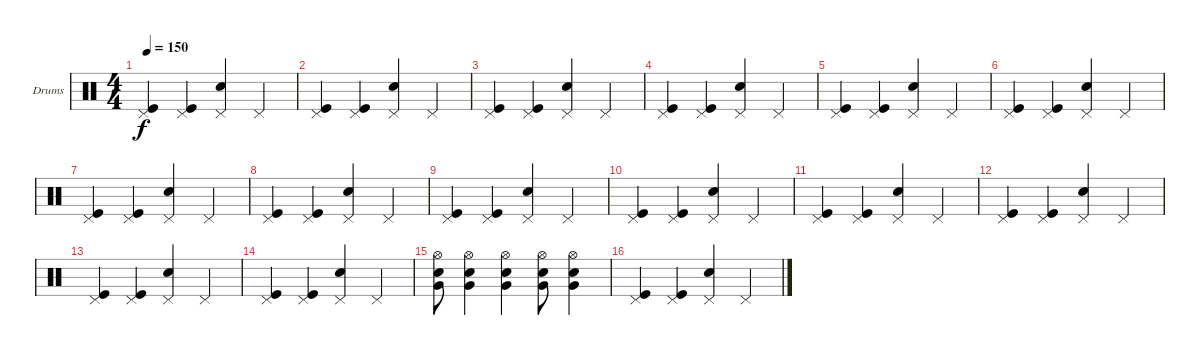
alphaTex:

\bracketExtendMode groupsimilarinstruments
\firstSystemTrackNameOrientation horizontal
\otherSystemsTrackNameOrientation horizontal
\track ("Drumkit" "Drums") {instrument percussion}
\staff {score}
\articulation defaults
\ts (4 4)
\tempo 150
\clef neutral
\ks c
("Pedal Hi-Hat (hit)" "Kick (hit)").4{dy f} ("Pedal Hi-Hat (hit)" "Kick (hit)").4 ("Pedal Hi-Hat (hit)" "Snare (hit) 2").4 "Pedal Hi-Hat (hit)".4 |
("Pedal Hi-Hat (hit)" "Kick (hit)").4 ("Pedal Hi-Hat (hit)" "Kick (hit)").4 ("Pedal Hi-Hat (hit)" "Snare (hit) 2").4 "Pedal Hi-Hat (hit)".4 |
("Pedal Hi-Hat (hit)" "Kick (hit)").4 ("Pedal Hi-Hat (hit)" "Kick (hit)").4 ("Pedal Hi-Hat (hit)" "Snare (hit) 2").4 "Pedal Hi-Hat (hit)".4 |
("Pedal Hi-Hat (hit)" "Kick (hit)").4 ("Pedal Hi-Hat (hit)" "Kick (hit)").4 ("Pedal Hi-Hat (hit)" "Snare (hit) 2").4 "Pedal Hi-Hat (hit)".4 |
("Pedal Hi-Hat (hit)" "Kick (hit)").4 ("Pedal Hi-Hat (hit)" "Kick (hit)").4 ("Pedal Hi-Hat (hit)" "Snare (hit) 2").4 "Pedal Hi-Hat (hit)".4 |
("Pedal Hi-Hat (hit)" "Kick (hit)").4 ("Pedal Hi-Hat (hit)" "Kick (hit)").4 ("Pedal Hi-Hat (hit)" "Snare (hit) 2").4 "Pedal Hi-Hat (hit)".4 |
("Pedal Hi-Hat (hit)" "Kick (hit)").4 ("Pedal Hi-Hat (hit)" "Kick (hit)").4 ("Pedal Hi-Hat (hit)" "Snare (hit) 2").4 "Pedal Hi-Hat (hit)".4 |
("Pedal Hi-Hat (hit)" "Kick (hit)").4 ("Pedal Hi-Hat (hit)" "Kick (hit)").4 ("Pedal Hi-Hat (hit)" "Snare (hit) 2").4 "Pedal Hi-Hat (hit)".4 |
("Pedal Hi-Hat (hit)" "Kick (hit)").4 ("Pedal Hi-Hat (hit)" "Kick (hit)").4 ("Pedal Hi-Hat (hit)" "Snare (hit) 2").4 "Pedal Hi-Hat (hit)".4 |
("Pedal Hi-Hat (hit)" "Kick (hit)").4 ("Pedal Hi-Hat (hit)" "Kick (hit)").4 ("Pedal Hi-Hat (hit)" "Snare (hit) 2").4 "Pedal Hi-Hat (hit)".4 |
("Pedal Hi-Hat (hit)" "Kick (hit)").4 ("Pedal Hi-Hat (hit)" "Kick (hit)").4 ("Pedal Hi-Hat (hit)" "Snare (hit) 2").4 "Pedal Hi-Hat (hit)".4 |
("Pedal Hi-Hat (hit)" "Kick (hit)").4 ("Pedal Hi-Hat (hit)" "Kick (hit)").4 ("Pedal Hi-Hat (hit)" "Snare (hit) 2").4 "Pedal Hi-Hat (hit)".4 |
("Pedal Hi-Hat (hit)" "Kick (hit)").4 ("Pedal Hi-Hat (hit)" "Kick (hit)").4 ("Pedal Hi-Hat (hit)" "Snare (hit) 2").4 "Pedal Hi-Hat (hit)".4 |
("Pedal Hi-Hat (hit)" "Kick (hit)").4 ("Pedal Hi-Hat (hit)" "Kick (hit)").4 ("Pedal Hi-Hat (hit)" "Snare (hit) 2").4 "Pedal Hi-Hat (hit)".4 |
("Snare (hit) 2" "Very Low Tom (hit)" "Hi-Hat (open)").8 ("Snare (hit) 2" "Very Low Tom (hit)" "Hi-Hat (open)").4 ("Snare (hit) 2" "Very Low Tom (hit)" "Hi-Hat (open)").4 ("Snare (hit) 2" "Very Low Tom (hit)" "Hi-Hat (open)").8 ("Snare (hit) 2" "Very Low Tom (hit)" "Hi-Hat (open)").4 |
("Pedal Hi-Hat (hit)" "Kick (hit)").4 ("Pedal Hi-Hat (hit)" "Kick (hit)").4 ("Pedal Hi-Hat (hit)" "Snare (hit) 2").4 "Pedal Hi-Hat (hit)".4
